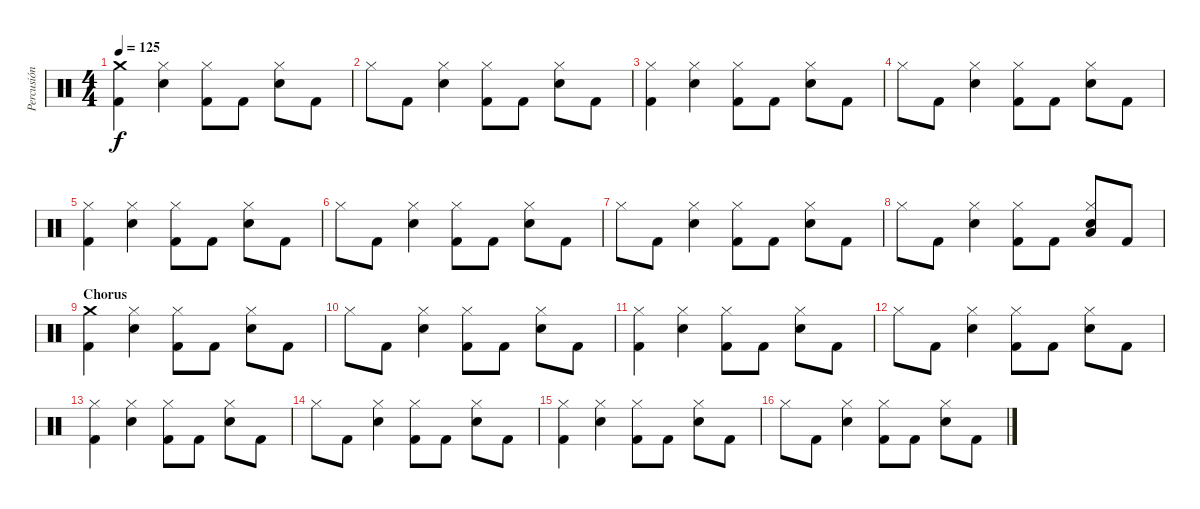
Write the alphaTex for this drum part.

\track ("Percusión" "Percusión") {instrument percussion}
\staff {score}
\articulation defaults
\ts (4 4)
\tempo 125
\clef neutral
\ks c
("Crash medium (hit)" "Kick (hit) 2").4{dy f} ("Snare (hit) 2" "Hi-Hat (closed)").4 ("Kick (hit) 2" "Hi-Hat (closed)").8 "Kick (hit) 2".8 ("Hi-Hat (closed)" "Snare (hit) 2").8 "Kick (hit) 2".8 |
"Hi-Hat (closed)".8 "Kick (hit) 2".8 ("Hi-Hat (closed)" "Snare (hit) 2").4 ("Hi-Hat (closed)" "Kick (hit) 2").8 "Kick (hit) 2".8 ("Hi-Hat (closed)" "Snare (hit) 2").8 "Kick (hit) 2".8 |
("Hi-Hat (closed)" "Kick (hit) 2").4 ("Snare (hit) 2" "Hi-Hat (closed)").4 ("Kick (hit) 2" "Hi-Hat (closed)").8 "Kick (hit) 2".8 ("Hi-Hat (closed)" "Snare (hit) 2").8 "Kick (hit) 2".8 |
"Hi-Hat (closed)".8 "Kick (hit) 2".8 ("Hi-Hat (closed)" "Snare (hit) 2").4 ("Hi-Hat (closed)" "Kick (hit) 2").8 "Kick (hit) 2".8 ("Hi-Hat (closed)" "Snare (hit) 2").8 "Kick (hit) 2".8 |
("Hi-Hat (closed)" "Kick (hit) 2").4 ("Snare (hit) 2" "Hi-Hat (closed)").4 ("Kick (hit) 2" "Hi-Hat (closed)").8 "Kick (hit) 2".8 ("Hi-Hat (closed)" "Snare (hit) 2").8 "Kick (hit) 2".8 |
"Hi-Hat (closed)".8 "Kick (hit) 2".8 ("Hi-Hat (closed)" "Snare (hit) 2").4 ("Hi-Hat (closed)" "Kick (hit) 2").8 "Kick (hit) 2".8 ("Hi-Hat (closed)" "Snare (hit) 2").8 "Kick (hit) 2".8 |
"Hi-Hat (closed)".8 "Kick (hit) 2".8 ("Hi-Hat (closed)" "Snare (hit) 2").4 ("Hi-Hat (closed)" "Kick (hit) 2").8 "Kick (hit) 2".8 ("Hi-Hat (closed)" "Snare (hit) 2").8 "Kick (hit) 2".8 |
"Hi-Hat (closed)".8 "Kick (hit) 2".8 ("Hi-Hat (closed)" "Snare (hit) 2").4 ("Hi-Hat (closed)" "Kick (hit) 2").8 "Kick (hit) 2".8 ("Hi-Hat (closed)" "Snare (hit) 2" "Low Floor Tom (hit)").8 "Kick (hit) 2".8 |
\section ("" "Chorus")
("Crash medium (hit)" "Kick (hit) 2").4 ("Snare (hit) 2" "Hi-Hat (closed)").4 ("Kick (hit) 2" "Hi-Hat (closed)").8 "Kick (hit) 2".8 ("Hi-Hat (closed)" "Snare (hit) 2").8 "Kick (hit) 2".8 |
"Hi-Hat (closed)".8 "Kick (hit) 2".8 ("Hi-Hat (closed)" "Snare (hit) 2").4 ("Hi-Hat (closed)" "Kick (hit) 2").8 "Kick (hit) 2".8 ("Hi-Hat (closed)" "Snare (hit) 2").8 "Kick (hit) 2".8 |
("Hi-Hat (closed)" "Kick (hit) 2").4 ("Snare (hit) 2" "Hi-Hat (closed)").4 ("Kick (hit) 2" "Hi-Hat (closed)").8 "Kick (hit) 2".8 ("Hi-Hat (closed)" "Snare (hit) 2").8 "Kick (hit) 2".8 |
"Hi-Hat (closed)".8 "Kick (hit) 2".8 ("Hi-Hat (closed)" "Snare (hit) 2").4 ("Hi-Hat (closed)" "Kick (hit) 2").8 "Kick (hit) 2".8 ("Hi-Hat (closed)" "Snare (hit) 2").8 "Kick (hit) 2".8 |
("Hi-Hat (closed)" "Kick (hit) 2").4 ("Snare (hit) 2" "Hi-Hat (closed)").4 ("Kick (hit) 2" "Hi-Hat (closed)").8 "Kick (hit) 2".8 ("Hi-Hat (closed)" "Snare (hit) 2").8 "Kick (hit) 2".8 |
"Hi-Hat (closed)".8 "Kick (hit) 2".8 ("Hi-Hat (closed)" "Snare (hit) 2").4 ("Hi-Hat (closed)" "Kick (hit) 2").8 "Kick (hit) 2".8 ("Hi-Hat (closed)" "Snare (hit) 2").8 "Kick (hit) 2".8 |
("Hi-Hat (closed)" "Kick (hit) 2").4 ("Snare (hit) 2" "Hi-Hat (closed)").4 ("Kick (hit) 2" "Hi-Hat (closed)").8 "Kick (hit) 2".8 ("Hi-Hat (closed)" "Snare (hit) 2").8 "Kick (hit) 2".8 |
"Hi-Hat (closed)".8 "Kick (hit) 2".8 ("Hi-Hat (closed)" "Snare (hit) 2").4 ("Hi-Hat (closed)" "Kick (hit) 2").8 "Kick (hit) 2".8 ("Hi-Hat (closed)" "Snare (hit) 2").8 "Kick (hit) 2".8
